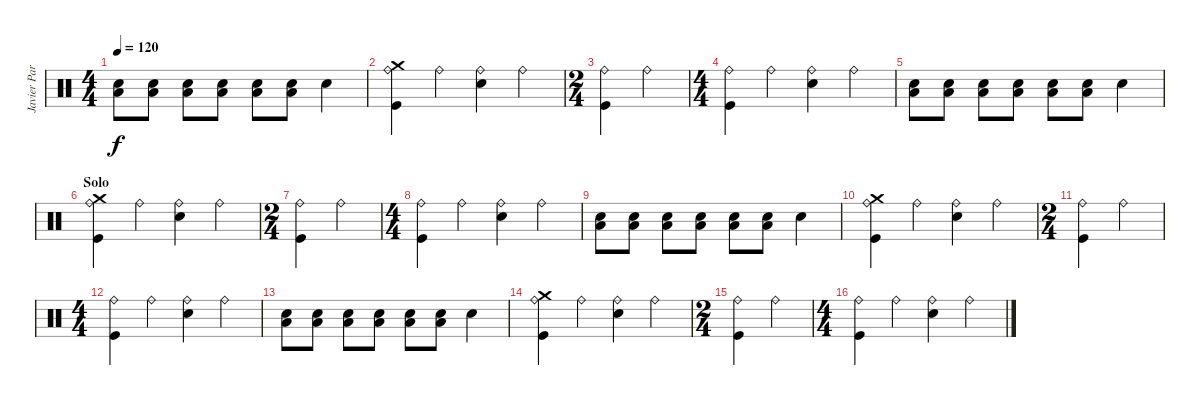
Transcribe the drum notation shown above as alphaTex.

\track ("Javier Partida" "Javier Par") {instrument percussion}
\staff {score}
\articulation defaults
\ts (4 4)
\tempo 120
\clef neutral
\ks c
("Snare (hit) 2" "Low Tom (hit)").8{dy f} ("Snare (hit) 2" "Low Tom (hit)").8 ("Snare (hit) 2" "Low Tom (hit)").8 ("Snare (hit) 2" "Low Tom (hit)").8 ("Snare (hit) 2" "Low Tom (hit)").8 ("Snare (hit) 2" "Low Tom (hit)").8 "Snare (hit) 2".4 |
("Ride (bell)" "Kick (hit)" "Crash medium (hit)").4 "Ride (bell)".4 ("Ride (bell)" "Snare (hit) 2").4 "Ride (bell)".4 |
\ts (2 4)
("Ride (bell)" "Kick (hit)").4 "Ride (bell)".4 |
\ts (4 4)
("Ride (bell)" "Kick (hit)").4 "Ride (bell)".4 ("Ride (bell)" "Snare (hit) 2").4 "Ride (bell)".4 |
("Snare (hit) 2" "Low Tom (hit)").8 ("Snare (hit) 2" "Low Tom (hit)").8 ("Snare (hit) 2" "Low Tom (hit)").8 ("Snare (hit) 2" "Low Tom (hit)").8 ("Snare (hit) 2" "Low Tom (hit)").8 ("Snare (hit) 2" "Low Tom (hit)").8 "Snare (hit) 2".4 |
\section ("" "Solo")
("Ride (bell)" "Kick (hit)" "Crash medium (hit)").4 "Ride (bell)".4 ("Ride (bell)" "Snare (hit) 2").4 "Ride (bell)".4 |
\ts (2 4)
("Ride (bell)" "Kick (hit)").4 "Ride (bell)".4 |
\ts (4 4)
("Ride (bell)" "Kick (hit)").4 "Ride (bell)".4 ("Ride (bell)" "Snare (hit) 2").4 "Ride (bell)".4 |
("Snare (hit) 2" "Low Tom (hit)").8 ("Snare (hit) 2" "Low Tom (hit)").8 ("Snare (hit) 2" "Low Tom (hit)").8 ("Snare (hit) 2" "Low Tom (hit)").8 ("Snare (hit) 2" "Low Tom (hit)").8 ("Snare (hit) 2" "Low Tom (hit)").8 "Snare (hit) 2".4 |
("Ride (bell)" "Kick (hit)" "Crash medium (hit)").4 "Ride (bell)".4 ("Ride (bell)" "Snare (hit) 2").4 "Ride (bell)".4 |
\ts (2 4)
("Ride (bell)" "Kick (hit)").4 "Ride (bell)".4 |
\ts (4 4)
("Ride (bell)" "Kick (hit)").4 "Ride (bell)".4 ("Ride (bell)" "Snare (hit) 2").4 "Ride (bell)".4 |
("Snare (hit) 2" "Low Tom (hit)").8 ("Snare (hit) 2" "Low Tom (hit)").8 ("Snare (hit) 2" "Low Tom (hit)").8 ("Snare (hit) 2" "Low Tom (hit)").8 ("Snare (hit) 2" "Low Tom (hit)").8 ("Snare (hit) 2" "Low Tom (hit)").8 "Snare (hit) 2".4 |
("Ride (bell)" "Kick (hit)" "Crash medium (hit)").4 "Ride (bell)".4 ("Ride (bell)" "Snare (hit) 2").4 "Ride (bell)".4 |
\ts (2 4)
("Ride (bell)" "Kick (hit)").4 "Ride (bell)".4 |
\ts (4 4)
("Ride (bell)" "Kick (hit)").4 "Ride (bell)".4 ("Ride (bell)" "Snare (hit) 2").4 "Ride (bell)".4
